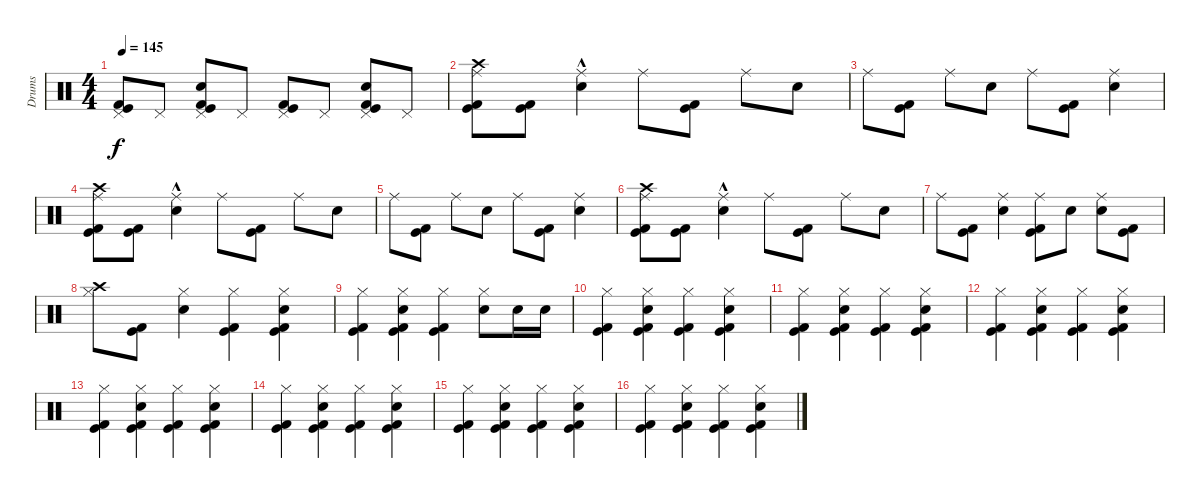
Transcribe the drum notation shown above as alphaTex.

\track ("Drums" "Drums") {instrument percussion}
\staff {score}
\articulation defaults
\ts (4 4)
\tempo 145
\clef neutral
\ks c
("Kick (hit) 2" "Pedal Hi-Hat (hit)" "Kick (hit)").8{dy f} "Pedal Hi-Hat (hit)".8 ("Electric Snare (hit)" "Pedal Hi-Hat (hit)" "Kick (hit) 2" "Kick (hit)").8 "Pedal Hi-Hat (hit)".8 ("Kick (hit) 2" "Pedal Hi-Hat (hit)" "Kick (hit)").8 "Pedal Hi-Hat (hit)".8 ("Electric Snare (hit)" "Pedal Hi-Hat (hit)" "Kick (hit) 2" "Kick (hit)").8 "Pedal Hi-Hat (hit)".8 |
("Ride (middle)" "Crash high (hit)" "Kick (hit) 2" "Kick (hit)").8 ("Kick (hit) 2" "Kick (hit)").8 ("Ride (middle)" "Electric Snare (hit)"{hac}).4 "Ride (middle)".8 ("Kick (hit) 2" "Kick (hit)").8 "Ride (middle)".8 "Electric Snare (hit)".8 |
"Ride (middle)".8 ("Kick (hit) 2" "Kick (hit)").8 "Ride (middle)".8 "Electric Snare (hit)".8 "Ride (middle)".8 ("Kick (hit) 2" "Kick (hit)").8 ("Ride (middle)" "Electric Snare (hit)").4 |
("Ride (middle)" "Crash high (hit)" "Kick (hit) 2" "Kick (hit)").8 ("Kick (hit) 2" "Kick (hit)").8 ("Ride (middle)" "Electric Snare (hit)"{hac}).4 "Ride (middle)".8 ("Kick (hit) 2" "Kick (hit)").8 "Ride (middle)".8 "Electric Snare (hit)".8 |
"Ride (middle)".8 ("Kick (hit) 2" "Kick (hit)").8 "Ride (middle)".8 "Electric Snare (hit)".8 "Ride (middle)".8 ("Kick (hit) 2" "Kick (hit)").8 ("Ride (middle)" "Electric Snare (hit)").4 |
("Ride (middle)" "Crash high (hit)" "Kick (hit) 2" "Kick (hit)").8 ("Kick (hit) 2" "Kick (hit)").8 ("Ride (middle)" "Electric Snare (hit)"{hac}).4 "Ride (middle)".8 ("Kick (hit) 2" "Kick (hit)").8 "Ride (middle)".8 "Electric Snare (hit)".8 |
"Ride (middle)".8 ("Kick (hit) 2" "Kick (hit)").8 ("Ride (middle)" "Electric Snare (hit)").4 ("Ride (middle)" "Kick (hit) 2" "Kick (hit)").8 "Electric Snare (hit)".8 ("Ride (middle)" "Electric Snare (hit)").8 ("Kick (hit) 2" "Kick (hit)").8 |
("Crash high (hit)" "Hi-Hat (closed)").8 ("Kick (hit) 2" "Kick (hit)").8 ("Hi-Hat (closed)" "Electric Snare (hit)").4 ("Hi-Hat (closed)" "Kick (hit) 2" "Kick (hit)").4 ("Electric Snare (hit)" "Hi-Hat (closed)" "Kick (hit) 2" "Kick (hit)").4 |
("Kick (hit) 2" "Hi-Hat (closed)" "Kick (hit)").4 ("Electric Snare (hit)" "Hi-Hat (closed)" "Kick (hit) 2" "Kick (hit)").4 ("Hi-Hat (closed)" "Kick (hit) 2" "Kick (hit)").4 ("Hi-Hat (closed)" "Electric Snare (hit)").8 "Electric Snare (hit)".16 "Electric Snare (hit)".16 |
("Hi-Hat (closed)" "Kick (hit) 2" "Kick (hit)").4 ("Hi-Hat (closed)" "Electric Snare (hit)" "Kick (hit) 2" "Kick (hit)").4 ("Hi-Hat (closed)" "Kick (hit) 2" "Kick (hit)").4 ("Electric Snare (hit)" "Hi-Hat (closed)" "Kick (hit) 2" "Kick (hit)").4 |
("Kick (hit) 2" "Hi-Hat (closed)" "Kick (hit)").4 ("Electric Snare (hit)" "Hi-Hat (closed)" "Kick (hit) 2" "Kick (hit)").4 ("Hi-Hat (closed)" "Kick (hit) 2" "Kick (hit)").4 ("Hi-Hat (closed)" "Electric Snare (hit)" "Kick (hit) 2" "Kick (hit)").4 |
("Hi-Hat (closed)" "Kick (hit) 2" "Kick (hit)").4 ("Hi-Hat (closed)" "Electric Snare (hit)" "Kick (hit) 2" "Kick (hit)").4 ("Hi-Hat (closed)" "Kick (hit) 2" "Kick (hit)").4 ("Electric Snare (hit)" "Hi-Hat (closed)" "Kick (hit) 2" "Kick (hit)").4 |
("Kick (hit) 2" "Hi-Hat (closed)" "Kick (hit)").4 ("Electric Snare (hit)" "Hi-Hat (closed)" "Kick (hit) 2" "Kick (hit)").4 ("Hi-Hat (closed)" "Kick (hit) 2" "Kick (hit)").4 ("Hi-Hat (closed)" "Electric Snare (hit)" "Kick (hit) 2" "Kick (hit)").4 |
("Hi-Hat (closed)" "Kick (hit) 2" "Kick (hit)").4 ("Hi-Hat (closed)" "Electric Snare (hit)" "Kick (hit) 2" "Kick (hit)").4 ("Hi-Hat (closed)" "Kick (hit) 2" "Kick (hit)").4 ("Electric Snare (hit)" "Hi-Hat (closed)" "Kick (hit) 2" "Kick (hit)").4 |
("Kick (hit) 2" "Hi-Hat (closed)" "Kick (hit)").4 ("Electric Snare (hit)" "Hi-Hat (closed)" "Kick (hit) 2" "Kick (hit)").4 ("Hi-Hat (closed)" "Kick (hit) 2" "Kick (hit)").4 ("Hi-Hat (closed)" "Electric Snare (hit)" "Kick (hit) 2" "Kick (hit)").4 |
("Hi-Hat (closed)" "Kick (hit) 2" "Kick (hit)").4 ("Hi-Hat (closed)" "Electric Snare (hit)" "Kick (hit) 2" "Kick (hit)").4 ("Hi-Hat (closed)" "Kick (hit) 2" "Kick (hit)").4 ("Electric Snare (hit)" "Hi-Hat (closed)" "Kick (hit) 2" "Kick (hit)").4
